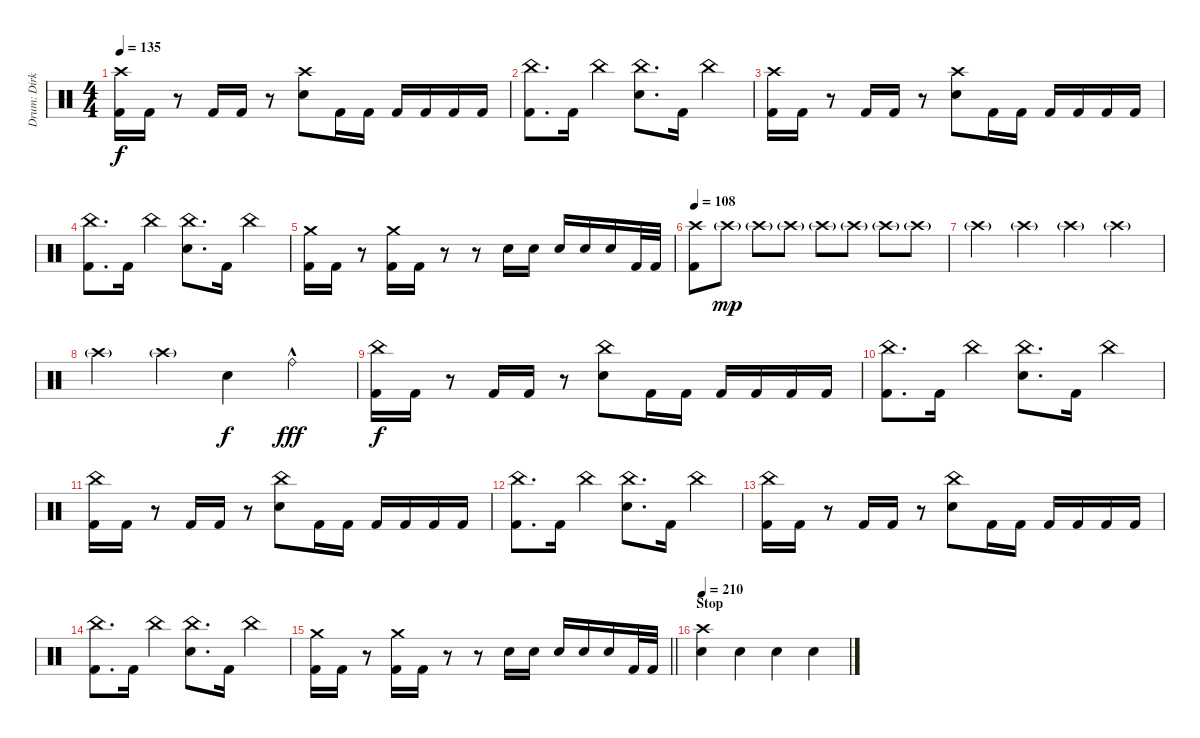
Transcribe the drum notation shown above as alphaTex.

\track ("Drum: Dirk" "Drum: Dirk") {instrument percussion}
\staff {score}
\articulation defaults
\ts (4 4)
\tempo 135
\clef neutral
\ks c
("Crash high (hit)" "Kick (hit) 2").16{dy f} "Kick (hit) 2".16 r.8 "Kick (hit) 2".16 "Kick (hit) 2".16 r.8 ("Crash high (hit)" "Electric Snare (hit)").8 "Kick (hit) 2".16 "Kick (hit) 2".16 "Kick (hit) 2".16 "Kick (hit) 2".16 "Kick (hit) 2".16 "Kick (hit) 2".16 |
("China (hit)" "Kick (hit) 2").8{d} "Kick (hit) 2".16 "China (hit)".4 ("China (hit)" "Electric Snare (hit)").8{d} "Kick (hit) 2".16 "China (hit)".4 |
("Crash high (hit)" "Kick (hit) 2").16 "Kick (hit) 2".16 r.8 "Kick (hit) 2".16 "Kick (hit) 2".16 r.8 ("Crash high (hit)" "Electric Snare (hit)").8 "Kick (hit) 2".16 "Kick (hit) 2".16 "Kick (hit) 2".16 "Kick (hit) 2".16 "Kick (hit) 2".16 "Kick (hit) 2".16 |
("China (hit)" "Kick (hit) 2").8{d} "Kick (hit) 2".16 "China (hit)".4 ("China (hit)" "Electric Snare (hit)").8{d} "Kick (hit) 2".16 "China (hit)".4 |
("Crash medium (hit)" "Kick (hit) 2").16 "Kick (hit) 2".16 r.8{volume 0} ("Crash medium (hit)" "Kick (hit) 2").16{volume 12} "Kick (hit) 2".16 r.8{volume 0} r.8 "Electric Snare (hit)".16{volume 12} "Electric Snare (hit)".16 "Electric Snare (hit)".16 "Electric Snare (hit)".16 "Electric Snare (hit)".16 "Kick (hit) 2".32 "Kick (hit) 2".32 |
\tempo 108
("Crash high (hit)" "Kick (hit) 2").8 "Crash high (hit)"{g}.8{dy mp} "Crash high (hit)"{g}.8 "Crash high (hit)"{g}.8 "Crash high (hit)"{g}.8 "Crash high (hit)"{g}.8 "Crash high (hit)"{g}.8 "Crash high (hit)"{g}.8 |
"Crash high (hit)"{g}.4 "Crash high (hit)"{g}.4 "Crash high (hit)"{g}.4 "Crash high (hit)"{g}.4 |
"Crash high (hit)"{g}.4 "Crash high (hit)"{g}.4 "Electric Snare (hit)".4{dy f} "Ride (bell)"{hac}.4{dy fff} |
("China (hit)" "Kick (hit) 2").16{dy f} "Kick (hit) 2".16 r.8 "Kick (hit) 2".16 "Kick (hit) 2".16 r.8 ("China (hit)" "Electric Snare (hit)").8 "Kick (hit) 2".16 "Kick (hit) 2".16 "Kick (hit) 2".16 "Kick (hit) 2".16 "Kick (hit) 2".16 "Kick (hit) 2".16 |
("China (hit)" "Kick (hit) 2").8{d} "Kick (hit) 2".16 "China (hit)".4 ("China (hit)" "Electric Snare (hit)").8{d} "Kick (hit) 2".16 "China (hit)".4 |
("China (hit)" "Kick (hit) 2").16 "Kick (hit) 2".16 r.8 "Kick (hit) 2".16 "Kick (hit) 2".16 r.8 ("China (hit)" "Electric Snare (hit)").8 "Kick (hit) 2".16 "Kick (hit) 2".16 "Kick (hit) 2".16 "Kick (hit) 2".16 "Kick (hit) 2".16 "Kick (hit) 2".16 |
("China (hit)" "Kick (hit) 2").8{d} "Kick (hit) 2".16 "China (hit)".4 ("China (hit)" "Electric Snare (hit)").8{d} "Kick (hit) 2".16 "China (hit)".4 |
("China (hit)" "Kick (hit) 2").16 "Kick (hit) 2".16 r.8 "Kick (hit) 2".16 "Kick (hit) 2".16 r.8 ("China (hit)" "Electric Snare (hit)").8 "Kick (hit) 2".16 "Kick (hit) 2".16 "Kick (hit) 2".16 "Kick (hit) 2".16 "Kick (hit) 2".16 "Kick (hit) 2".16 |
("China (hit)" "Kick (hit) 2").8{d} "Kick (hit) 2".16 "China (hit)".4 ("China (hit)" "Electric Snare (hit)").8{d} "Kick (hit) 2".16 "China (hit)".4 |
\barLineRight lightlight
("Crash medium (hit)" "Kick (hit) 2").16 "Kick (hit) 2".16 r.8{volume 0} ("Crash medium (hit)" "Kick (hit) 2").16{volume 12} "Kick (hit) 2".16 r.8{volume 0} r.8 "Electric Snare (hit)".16{volume 12} "Electric Snare (hit)".16 "Electric Snare (hit)".16 "Electric Snare (hit)".16 "Electric Snare (hit)".16 "Kick (hit) 2".32 "Kick (hit) 2".32 |
\section ("" "Stop")
\tempo 210
("Crash high (hit)" "Electric Snare (hit)").4 "Electric Snare (hit)".4 "Electric Snare (hit)".4 "Electric Snare (hit)".4
